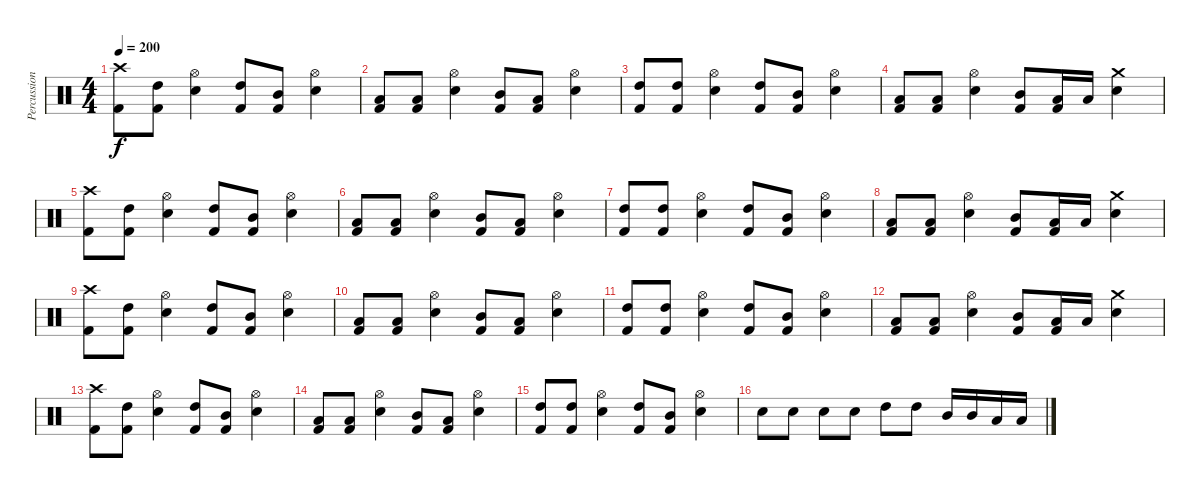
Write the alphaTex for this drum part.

\track ("Percussioni" "Percussion") {instrument percussion}
\staff {score}
\articulation defaults
\ts (4 4)
\tempo 200
\clef neutral
\ks c
("Crash high (hit)" "Kick (hit) 2").8{dy f} ("High Tom (hit)" "Kick (hit) 2").8 ("Hi-Hat (open)" "Electric Snare (hit)").4 ("High Tom (hit)" "Kick (hit) 2").8 ("Mid Tom (hit)" "Kick (hit) 2").8 ("Hi-Hat (open)" "Electric Snare (hit)").4 |
("Low Tom (hit)" "Kick (hit) 2").8 ("Low Tom (hit)" "Kick (hit) 2").8 ("Hi-Hat (open)" "Electric Snare (hit)").4 ("Mid Tom (hit)" "Kick (hit) 2").8 ("Low Tom (hit)" "Kick (hit) 2").8 ("Hi-Hat (open)" "Electric Snare (hit)").4 |
("High Tom (hit)" "Kick (hit) 2").8 ("High Tom (hit)" "Kick (hit) 2").8 ("Hi-Hat (open)" "Electric Snare (hit)").4 ("High Tom (hit)" "Kick (hit) 2").8 ("Mid Tom (hit)" "Kick (hit) 2").8 ("Hi-Hat (open)" "Electric Snare (hit)").4 |
("Low Tom (hit)" "Kick (hit) 2").8 ("Low Tom (hit)" "Kick (hit) 2").8 ("Hi-Hat (open)" "Electric Snare (hit)").4 ("Mid Tom (hit)" "Kick (hit) 2").8 ("Low Tom (hit)" "Kick (hit) 2").16 "Low Tom (hit)".16 ("Crash medium (hit)" "Electric Snare (hit)").4 |
("Crash high (hit)" "Kick (hit) 2").8 ("High Tom (hit)" "Kick (hit) 2").8 ("Hi-Hat (open)" "Electric Snare (hit)").4 ("High Tom (hit)" "Kick (hit) 2").8 ("Mid Tom (hit)" "Kick (hit) 2").8 ("Hi-Hat (open)" "Electric Snare (hit)").4 |
("Low Tom (hit)" "Kick (hit) 2").8 ("Low Tom (hit)" "Kick (hit) 2").8 ("Hi-Hat (open)" "Electric Snare (hit)").4 ("Mid Tom (hit)" "Kick (hit) 2").8 ("Low Tom (hit)" "Kick (hit) 2").8 ("Hi-Hat (open)" "Electric Snare (hit)").4 |
("High Tom (hit)" "Kick (hit) 2").8 ("High Tom (hit)" "Kick (hit) 2").8 ("Hi-Hat (open)" "Electric Snare (hit)").4 ("High Tom (hit)" "Kick (hit) 2").8 ("Mid Tom (hit)" "Kick (hit) 2").8 ("Hi-Hat (open)" "Electric Snare (hit)").4 |
("Low Tom (hit)" "Kick (hit) 2").8 ("Low Tom (hit)" "Kick (hit) 2").8 ("Hi-Hat (open)" "Electric Snare (hit)").4 ("Mid Tom (hit)" "Kick (hit) 2").8 ("Low Tom (hit)" "Kick (hit) 2").16 "Low Tom (hit)".16 ("Crash medium (hit)" "Electric Snare (hit)").4 |
("Crash high (hit)" "Kick (hit) 2").8 ("High Tom (hit)" "Kick (hit) 2").8 ("Hi-Hat (open)" "Electric Snare (hit)").4 ("High Tom (hit)" "Kick (hit) 2").8 ("Mid Tom (hit)" "Kick (hit) 2").8 ("Hi-Hat (open)" "Electric Snare (hit)").4 |
("Low Tom (hit)" "Kick (hit) 2").8 ("Low Tom (hit)" "Kick (hit) 2").8 ("Hi-Hat (open)" "Electric Snare (hit)").4 ("Mid Tom (hit)" "Kick (hit) 2").8 ("Low Tom (hit)" "Kick (hit) 2").8 ("Hi-Hat (open)" "Electric Snare (hit)").4 |
("High Tom (hit)" "Kick (hit) 2").8 ("High Tom (hit)" "Kick (hit) 2").8 ("Hi-Hat (open)" "Electric Snare (hit)").4 ("High Tom (hit)" "Kick (hit) 2").8 ("Mid Tom (hit)" "Kick (hit) 2").8 ("Hi-Hat (open)" "Electric Snare (hit)").4 |
("Low Tom (hit)" "Kick (hit) 2").8 ("Low Tom (hit)" "Kick (hit) 2").8 ("Hi-Hat (open)" "Electric Snare (hit)").4 ("Mid Tom (hit)" "Kick (hit) 2").8 ("Low Tom (hit)" "Kick (hit) 2").16 "Low Tom (hit)".16 ("Crash medium (hit)" "Electric Snare (hit)").4 |
("Crash high (hit)" "Kick (hit) 2").8 ("High Tom (hit)" "Kick (hit) 2").8 ("Hi-Hat (open)" "Electric Snare (hit)").4 ("High Tom (hit)" "Kick (hit) 2").8 ("Mid Tom (hit)" "Kick (hit) 2").8 ("Hi-Hat (open)" "Electric Snare (hit)").4 |
("Low Tom (hit)" "Kick (hit) 2").8 ("Low Tom (hit)" "Kick (hit) 2").8 ("Hi-Hat (open)" "Electric Snare (hit)").4 ("Mid Tom (hit)" "Kick (hit) 2").8 ("Low Tom (hit)" "Kick (hit) 2").8 ("Hi-Hat (open)" "Electric Snare (hit)").4 |
("High Tom (hit)" "Kick (hit) 2").8 ("High Tom (hit)" "Kick (hit) 2").8 ("Hi-Hat (open)" "Electric Snare (hit)").4 ("High Tom (hit)" "Kick (hit) 2").8 ("Mid Tom (hit)" "Kick (hit) 2").8 ("Hi-Hat (open)" "Electric Snare (hit)").4 |
"Electric Snare (hit)".8 "Electric Snare (hit)".8 "Electric Snare (hit)".8 "Electric Snare (hit)".8 "High Tom (hit)".8 "High Tom (hit)".8 "Mid Tom (hit)".16 "Mid Tom (hit)".16 "Low Tom (hit)".16 "Low Tom (hit)".16
